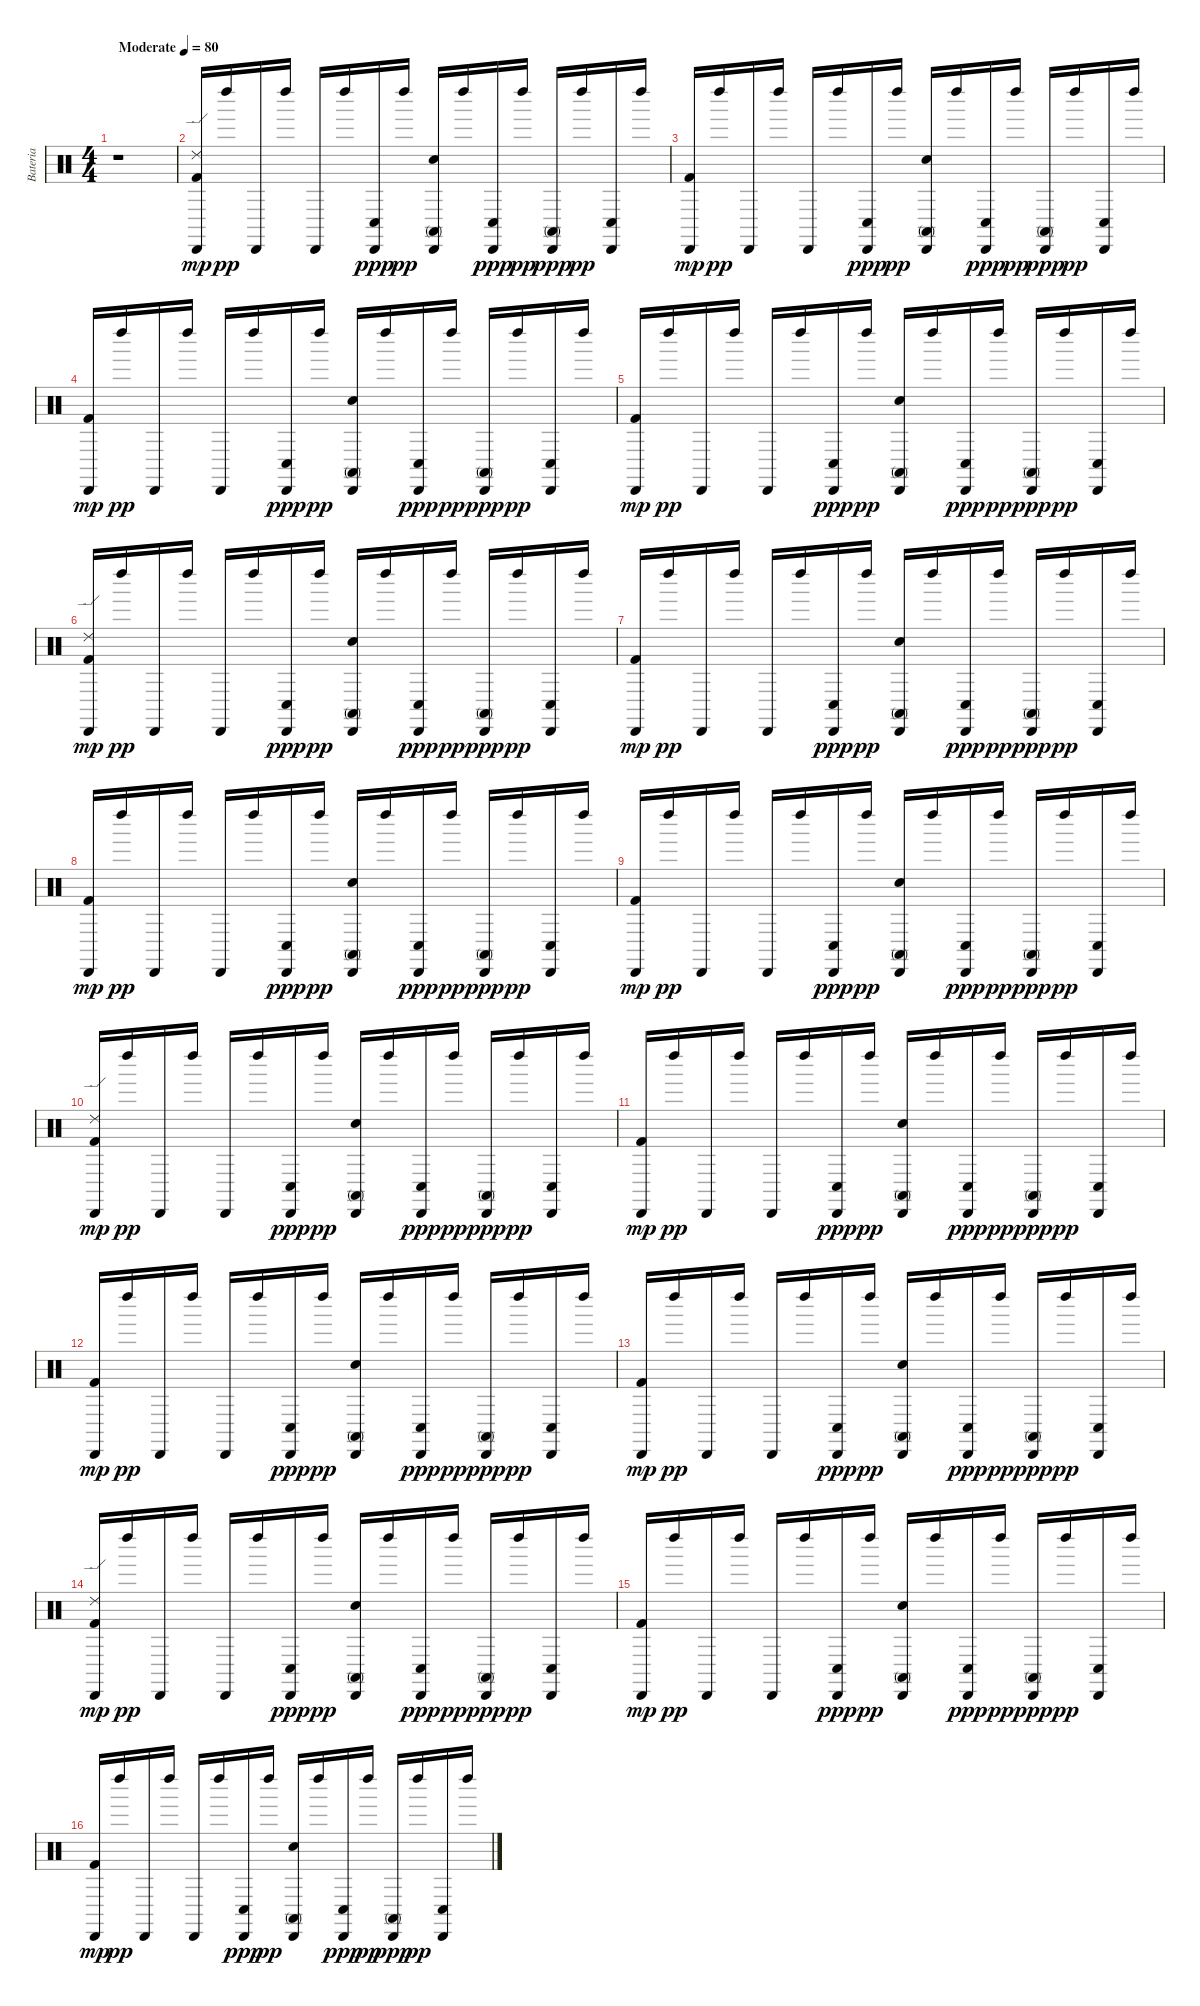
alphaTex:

\track ("Bateria" "Bateria") {instrument percussion}
\staff {score}
\articulation defaults
\ts (4 4)
\tempo (80 "Moderate")
\clef neutral
\ks c
r.1{dy mp} |
("Ride (edge) 2" "Cabasa (hit)" "Kick (hit) 2").16 "Left Maraca (hit)".16{dy pp} "Cabasa (hit)".16 "Left Maraca (hit)".16 "Cabasa (hit)".16 "Left Maraca (hit)".16 ("Conga low (hit)" "Cabasa (hit)").16{dy ppp} "Left Maraca (hit)".16{dy pp} ("Hand Clap (hit)" "Conga high (mute)" "Cabasa (hit)").16 "Left Maraca (hit)".16 ("Conga low (hit)" "Cabasa (hit)").16{dy ppp} "Left Maraca (hit)".16{dy pp} ("Conga high (mute)" "Cabasa (hit)").16{dy ppp} "Left Maraca (hit)".16{dy pp} ("Conga low (hit)" "Cabasa (hit)").16 "Left Maraca (hit)".16 |
("Cabasa (hit)" "Kick (hit) 2").16{dy mp} "Left Maraca (hit)".16{dy pp} "Cabasa (hit)".16 "Left Maraca (hit)".16 "Cabasa (hit)".16 "Left Maraca (hit)".16 ("Conga low (hit)" "Cabasa (hit)").16{dy ppp} "Left Maraca (hit)".16{dy pp} ("Hand Clap (hit)" "Conga high (mute)" "Cabasa (hit)").16 "Left Maraca (hit)".16 ("Conga low (hit)" "Cabasa (hit)").16{dy ppp} "Left Maraca (hit)".16{dy pp} ("Conga high (mute)" "Cabasa (hit)").16{dy ppp} "Left Maraca (hit)".16{dy pp} ("Conga low (hit)" "Cabasa (hit)").16 "Left Maraca (hit)".16 |
("Cabasa (hit)" "Kick (hit) 2").16{dy mp} "Left Maraca (hit)".16{dy pp} "Cabasa (hit)".16 "Left Maraca (hit)".16 "Cabasa (hit)".16 "Left Maraca (hit)".16 ("Conga low (hit)" "Cabasa (hit)").16{dy ppp} "Left Maraca (hit)".16{dy pp} ("Hand Clap (hit)" "Conga high (mute)" "Cabasa (hit)").16 "Left Maraca (hit)".16 ("Conga low (hit)" "Cabasa (hit)").16{dy ppp} "Left Maraca (hit)".16{dy pp} ("Conga high (mute)" "Cabasa (hit)").16{dy ppp} "Left Maraca (hit)".16{dy pp} ("Conga low (hit)" "Cabasa (hit)").16 "Left Maraca (hit)".16 |
("Cabasa (hit)" "Kick (hit) 2").16{dy mp} "Left Maraca (hit)".16{dy pp} "Cabasa (hit)".16 "Left Maraca (hit)".16 "Cabasa (hit)".16 "Left Maraca (hit)".16 ("Conga low (hit)" "Cabasa (hit)").16{dy ppp} "Left Maraca (hit)".16{dy pp} ("Hand Clap (hit)" "Conga high (mute)" "Cabasa (hit)").16 "Left Maraca (hit)".16 ("Conga low (hit)" "Cabasa (hit)").16{dy ppp} "Left Maraca (hit)".16{dy pp} ("Conga high (mute)" "Cabasa (hit)").16{dy ppp} "Left Maraca (hit)".16{dy pp} ("Conga low (hit)" "Cabasa (hit)").16 "Left Maraca (hit)".16 |
("Ride (edge) 2" "Cabasa (hit)" "Kick (hit) 2").16{dy mp} "Left Maraca (hit)".16{dy pp} "Cabasa (hit)".16 "Left Maraca (hit)".16 "Cabasa (hit)".16 "Left Maraca (hit)".16 ("Conga low (hit)" "Cabasa (hit)").16{dy ppp} "Left Maraca (hit)".16{dy pp} ("Hand Clap (hit)" "Conga high (mute)" "Cabasa (hit)").16 "Left Maraca (hit)".16 ("Conga low (hit)" "Cabasa (hit)").16{dy ppp} "Left Maraca (hit)".16{dy pp} ("Conga high (mute)" "Cabasa (hit)").16{dy ppp} "Left Maraca (hit)".16{dy pp} ("Conga low (hit)" "Cabasa (hit)").16 "Left Maraca (hit)".16 |
("Cabasa (hit)" "Kick (hit) 2").16{dy mp} "Left Maraca (hit)".16{dy pp} "Cabasa (hit)".16 "Left Maraca (hit)".16 "Cabasa (hit)".16 "Left Maraca (hit)".16 ("Conga low (hit)" "Cabasa (hit)").16{dy ppp} "Left Maraca (hit)".16{dy pp} ("Hand Clap (hit)" "Conga high (mute)" "Cabasa (hit)").16 "Left Maraca (hit)".16 ("Conga low (hit)" "Cabasa (hit)").16{dy ppp} "Left Maraca (hit)".16{dy pp} ("Conga high (mute)" "Cabasa (hit)").16{dy ppp} "Left Maraca (hit)".16{dy pp} ("Conga low (hit)" "Cabasa (hit)").16 "Left Maraca (hit)".16 |
("Cabasa (hit)" "Kick (hit) 2").16{dy mp} "Left Maraca (hit)".16{dy pp} "Cabasa (hit)".16 "Left Maraca (hit)".16 "Cabasa (hit)".16 "Left Maraca (hit)".16 ("Conga low (hit)" "Cabasa (hit)").16{dy ppp} "Left Maraca (hit)".16{dy pp} ("Hand Clap (hit)" "Conga high (mute)" "Cabasa (hit)").16 "Left Maraca (hit)".16 ("Conga low (hit)" "Cabasa (hit)").16{dy ppp} "Left Maraca (hit)".16{dy pp} ("Conga high (mute)" "Cabasa (hit)").16{dy ppp} "Left Maraca (hit)".16{dy pp} ("Conga low (hit)" "Cabasa (hit)").16 "Left Maraca (hit)".16 |
("Cabasa (hit)" "Kick (hit) 2").16{dy mp} "Left Maraca (hit)".16{dy pp} "Cabasa (hit)".16 "Left Maraca (hit)".16 "Cabasa (hit)".16 "Left Maraca (hit)".16 ("Conga low (hit)" "Cabasa (hit)").16{dy ppp} "Left Maraca (hit)".16{dy pp} ("Hand Clap (hit)" "Conga high (mute)" "Cabasa (hit)").16 "Left Maraca (hit)".16 ("Conga low (hit)" "Cabasa (hit)").16{dy ppp} "Left Maraca (hit)".16{dy pp} ("Conga high (mute)" "Cabasa (hit)").16{dy ppp} "Left Maraca (hit)".16{dy pp} ("Conga low (hit)" "Cabasa (hit)").16 "Left Maraca (hit)".16 |
("Ride (edge) 2" "Cabasa (hit)" "Kick (hit) 2").16{dy mp} "Left Maraca (hit)".16{dy pp} "Cabasa (hit)".16 "Left Maraca (hit)".16 "Cabasa (hit)".16 "Left Maraca (hit)".16 ("Conga low (hit)" "Cabasa (hit)").16{dy ppp} "Left Maraca (hit)".16{dy pp} ("Hand Clap (hit)" "Conga high (mute)" "Cabasa (hit)").16 "Left Maraca (hit)".16 ("Conga low (hit)" "Cabasa (hit)").16{dy ppp} "Left Maraca (hit)".16{dy pp} ("Conga high (mute)" "Cabasa (hit)").16{dy ppp} "Left Maraca (hit)".16{dy pp} ("Conga low (hit)" "Cabasa (hit)").16 "Left Maraca (hit)".16 |
("Cabasa (hit)" "Kick (hit) 2").16{dy mp} "Left Maraca (hit)".16{dy pp} "Cabasa (hit)".16 "Left Maraca (hit)".16 "Cabasa (hit)".16 "Left Maraca (hit)".16 ("Conga low (hit)" "Cabasa (hit)").16{dy ppp} "Left Maraca (hit)".16{dy pp} ("Hand Clap (hit)" "Conga high (mute)" "Cabasa (hit)").16 "Left Maraca (hit)".16 ("Conga low (hit)" "Cabasa (hit)").16{dy ppp} "Left Maraca (hit)".16{dy pp} ("Conga high (mute)" "Cabasa (hit)").16{dy ppp} "Left Maraca (hit)".16{dy pp} ("Conga low (hit)" "Cabasa (hit)").16 "Left Maraca (hit)".16 |
("Cabasa (hit)" "Kick (hit) 2").16{dy mp} "Left Maraca (hit)".16{dy pp} "Cabasa (hit)".16 "Left Maraca (hit)".16 "Cabasa (hit)".16 "Left Maraca (hit)".16 ("Conga low (hit)" "Cabasa (hit)").16{dy ppp} "Left Maraca (hit)".16{dy pp} ("Hand Clap (hit)" "Conga high (mute)" "Cabasa (hit)").16 "Left Maraca (hit)".16 ("Conga low (hit)" "Cabasa (hit)").16{dy ppp} "Left Maraca (hit)".16{dy pp} ("Conga high (mute)" "Cabasa (hit)").16{dy ppp} "Left Maraca (hit)".16{dy pp} ("Conga low (hit)" "Cabasa (hit)").16 "Left Maraca (hit)".16 |
("Cabasa (hit)" "Kick (hit) 2").16{dy mp} "Left Maraca (hit)".16{dy pp} "Cabasa (hit)".16 "Left Maraca (hit)".16 "Cabasa (hit)".16 "Left Maraca (hit)".16 ("Conga low (hit)" "Cabasa (hit)").16{dy ppp} "Left Maraca (hit)".16{dy pp} ("Hand Clap (hit)" "Conga high (mute)" "Cabasa (hit)").16 "Left Maraca (hit)".16 ("Conga low (hit)" "Cabasa (hit)").16{dy ppp} "Left Maraca (hit)".16{dy pp} ("Conga high (mute)" "Cabasa (hit)").16{dy ppp} "Left Maraca (hit)".16{dy pp} ("Conga low (hit)" "Cabasa (hit)").16 "Left Maraca (hit)".16 |
("Ride (edge) 2" "Cabasa (hit)" "Kick (hit) 2").16{dy mp} "Left Maraca (hit)".16{dy pp} "Cabasa (hit)".16 "Left Maraca (hit)".16 "Cabasa (hit)".16 "Left Maraca (hit)".16 ("Conga low (hit)" "Cabasa (hit)").16{dy ppp} "Left Maraca (hit)".16{dy pp} ("Hand Clap (hit)" "Conga high (mute)" "Cabasa (hit)").16 "Left Maraca (hit)".16 ("Conga low (hit)" "Cabasa (hit)").16{dy ppp} "Left Maraca (hit)".16{dy pp} ("Conga high (mute)" "Cabasa (hit)").16{dy ppp} "Left Maraca (hit)".16{dy pp} ("Conga low (hit)" "Cabasa (hit)").16 "Left Maraca (hit)".16 |
("Cabasa (hit)" "Kick (hit) 2").16{dy mp} "Left Maraca (hit)".16{dy pp} "Cabasa (hit)".16 "Left Maraca (hit)".16 "Cabasa (hit)".16 "Left Maraca (hit)".16 ("Conga low (hit)" "Cabasa (hit)").16{dy ppp} "Left Maraca (hit)".16{dy pp} ("Hand Clap (hit)" "Conga high (mute)" "Cabasa (hit)").16 "Left Maraca (hit)".16 ("Conga low (hit)" "Cabasa (hit)").16{dy ppp} "Left Maraca (hit)".16{dy pp} ("Conga high (mute)" "Cabasa (hit)").16{dy ppp} "Left Maraca (hit)".16{dy pp} ("Conga low (hit)" "Cabasa (hit)").16 "Left Maraca (hit)".16 |
("Cabasa (hit)" "Kick (hit) 2").16{dy mp} "Left Maraca (hit)".16{dy pp} "Cabasa (hit)".16 "Left Maraca (hit)".16 "Cabasa (hit)".16 "Left Maraca (hit)".16 ("Conga low (hit)" "Cabasa (hit)").16{dy ppp} "Left Maraca (hit)".16{dy pp} ("Hand Clap (hit)" "Conga high (mute)" "Cabasa (hit)").16 "Left Maraca (hit)".16 ("Conga low (hit)" "Cabasa (hit)").16{dy ppp} "Left Maraca (hit)".16{dy pp} ("Conga high (mute)" "Cabasa (hit)").16{dy ppp} "Left Maraca (hit)".16{dy pp} ("Conga low (hit)" "Cabasa (hit)").16 "Left Maraca (hit)".16
